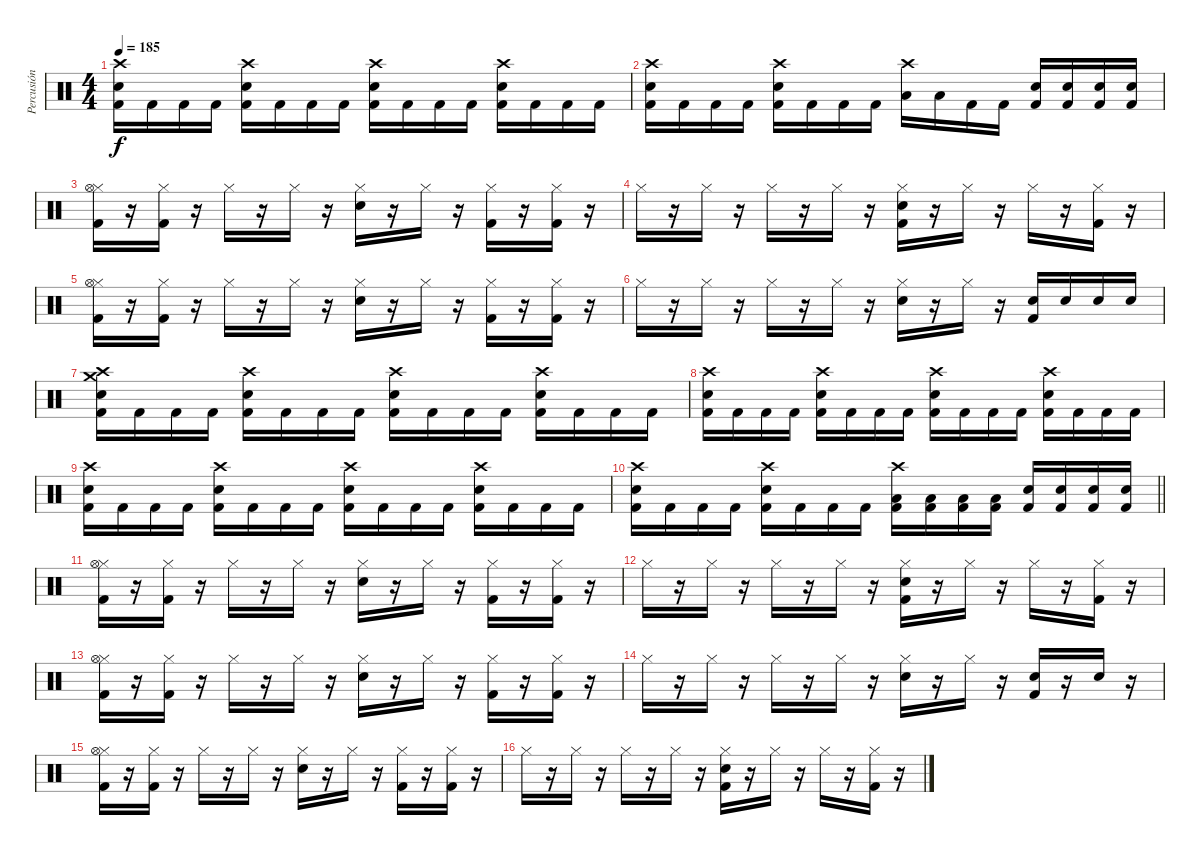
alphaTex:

\track ("Percusión" "Percusión") {instrument percussion}
\staff {score}
\articulation defaults
\ts (4 4)
\tempo 185
\clef neutral
\ks c
("Crash high (hit)" "Electric Snare (hit)" "Kick (hit) 2").16{dy f} "Kick (hit) 2".16 "Kick (hit) 2".16 "Kick (hit) 2".16 ("Crash high (hit)" "Electric Snare (hit)" "Kick (hit) 2").16 "Kick (hit) 2".16 "Kick (hit) 2".16 "Kick (hit) 2".16 ("Crash high (hit)" "Electric Snare (hit)" "Kick (hit) 2").16 "Kick (hit) 2".16 "Kick (hit) 2".16 "Kick (hit) 2".16 ("Crash high (hit)" "Electric Snare (hit)" "Kick (hit) 2").16 "Kick (hit) 2".16 "Kick (hit) 2".16 "Kick (hit) 2".16 |
("Crash high (hit)" "Electric Snare (hit)" "Kick (hit) 2").16 "Kick (hit) 2".16 "Kick (hit) 2".16 "Kick (hit) 2".16 ("Crash high (hit)" "Electric Snare (hit)" "Kick (hit) 2").16 "Kick (hit) 2".16 "Kick (hit) 2".16 "Kick (hit) 2".16 ("Crash high (hit)" "Low Tom (hit)").16 "Low Tom (hit)".16 "Kick (hit) 2".16 "Kick (hit) 2".16 ("Electric Snare (hit)" "Kick (hit) 2").16 ("Electric Snare (hit)" "Kick (hit) 2").16 ("Electric Snare (hit)" "Kick (hit) 2").16 ("Electric Snare (hit)" "Kick (hit) 2").16 |
("Hi-Hat (closed)" "Hi-Hat (open)" "Kick (hit) 2").16 r.16 ("Hi-Hat (closed)" "Kick (hit) 2").16 r.16 "Hi-Hat (closed)".16 r.16 "Hi-Hat (closed)".16 r.16 ("Hi-Hat (closed)" "Electric Snare (hit)").16 r.16 "Hi-Hat (closed)".16 r.16 ("Hi-Hat (closed)" "Kick (hit) 2").16 r.16 ("Hi-Hat (closed)" "Kick (hit) 2").16 r.16 |
"Hi-Hat (closed)".16 r.16 "Hi-Hat (closed)".16 r.16 "Hi-Hat (closed)".16 r.16 "Hi-Hat (closed)".16 r.16 ("Hi-Hat (closed)" "Electric Snare (hit)" "Kick (hit) 2").16 r.16 "Hi-Hat (closed)".16 r.16 "Hi-Hat (closed)".16 r.16 ("Hi-Hat (closed)" "Kick (hit) 2").16 r.16 |
("Hi-Hat (closed)" "Hi-Hat (open)" "Kick (hit) 2").16 r.16 ("Hi-Hat (closed)" "Kick (hit) 2").16 r.16 "Hi-Hat (closed)".16 r.16 "Hi-Hat (closed)".16 r.16 ("Hi-Hat (closed)" "Electric Snare (hit)").16 r.16 "Hi-Hat (closed)".16 r.16 ("Hi-Hat (closed)" "Kick (hit) 2").16 r.16 ("Hi-Hat (closed)" "Kick (hit) 2").16 r.16 |
"Hi-Hat (closed)".16 r.16 "Hi-Hat (closed)".16 r.16 "Hi-Hat (closed)".16 r.16 "Hi-Hat (closed)".16 r.16 ("Hi-Hat (closed)" "Electric Snare (hit)").16 r.16 "Hi-Hat (closed)".16 r.16 ("Electric Snare (hit)" "Kick (hit) 2").16 "Electric Snare (hit)".16 "Electric Snare (hit)".16 "Electric Snare (hit)".16 |
("Crash high (hit)" "Crash medium (hit)" "Electric Snare (hit)" "Kick (hit) 2").16 "Kick (hit) 2".16 "Kick (hit) 2".16 "Kick (hit) 2".16 ("Crash high (hit)" "Electric Snare (hit)" "Kick (hit) 2").16 "Kick (hit) 2".16 "Kick (hit) 2".16 "Kick (hit) 2".16 ("Crash high (hit)" "Electric Snare (hit)" "Kick (hit) 2").16 "Kick (hit) 2".16 "Kick (hit) 2".16 "Kick (hit) 2".16 ("Crash high (hit)" "Electric Snare (hit)" "Kick (hit) 2").16 "Kick (hit) 2".16 "Kick (hit) 2".16 "Kick (hit) 2".16 |
("Crash high (hit)" "Electric Snare (hit)" "Kick (hit) 2").16 "Kick (hit) 2".16 "Kick (hit) 2".16 "Kick (hit) 2".16 ("Crash high (hit)" "Electric Snare (hit)" "Kick (hit) 2").16 "Kick (hit) 2".16 "Kick (hit) 2".16 "Kick (hit) 2".16 ("Crash high (hit)" "Electric Snare (hit)" "Kick (hit) 2").16 "Kick (hit) 2".16 "Kick (hit) 2".16 "Kick (hit) 2".16 ("Crash high (hit)" "Electric Snare (hit)" "Kick (hit) 2").16 "Kick (hit) 2".16 "Kick (hit) 2".16 "Kick (hit) 2".16 |
("Crash high (hit)" "Electric Snare (hit)" "Kick (hit) 2").16 "Kick (hit) 2".16 "Kick (hit) 2".16 "Kick (hit) 2".16 ("Crash high (hit)" "Electric Snare (hit)" "Kick (hit) 2").16 "Kick (hit) 2".16 "Kick (hit) 2".16 "Kick (hit) 2".16 ("Crash high (hit)" "Electric Snare (hit)" "Kick (hit) 2").16 "Kick (hit) 2".16 "Kick (hit) 2".16 "Kick (hit) 2".16 ("Crash high (hit)" "Electric Snare (hit)" "Kick (hit) 2").16 "Kick (hit) 2".16 "Kick (hit) 2".16 "Kick (hit) 2".16 |
\barLineRight lightlight
("Crash high (hit)" "Electric Snare (hit)" "Kick (hit) 2").16 "Kick (hit) 2".16 "Kick (hit) 2".16 "Kick (hit) 2".16 ("Crash high (hit)" "Electric Snare (hit)" "Kick (hit) 2").16 "Kick (hit) 2".16 "Kick (hit) 2".16 "Kick (hit) 2".16 ("Crash high (hit)" "Low Tom (hit)" "Kick (hit) 2").16 ("Low Tom (hit)" "Kick (hit) 2").16 ("Low Tom (hit)" "Kick (hit) 2").16 ("Low Tom (hit)" "Kick (hit) 2").16 ("Electric Snare (hit)" "Kick (hit) 2").16 ("Electric Snare (hit)" "Kick (hit) 2").16 ("Electric Snare (hit)" "Kick (hit) 2").16 ("Electric Snare (hit)" "Kick (hit) 2").16 |
("Hi-Hat (closed)" "Hi-Hat (open)" "Kick (hit) 2").16 r.16 ("Hi-Hat (closed)" "Kick (hit) 2").16 r.16 "Hi-Hat (closed)".16 r.16 "Hi-Hat (closed)".16 r.16 ("Hi-Hat (closed)" "Electric Snare (hit)").16 r.16 "Hi-Hat (closed)".16 r.16 ("Hi-Hat (closed)" "Kick (hit) 2").16 r.16 ("Hi-Hat (closed)" "Kick (hit) 2").16 r.16 |
"Hi-Hat (closed)".16 r.16 "Hi-Hat (closed)".16 r.16 "Hi-Hat (closed)".16 r.16 "Hi-Hat (closed)".16 r.16 ("Hi-Hat (closed)" "Electric Snare (hit)" "Kick (hit) 2").16 r.16 "Hi-Hat (closed)".16 r.16 "Hi-Hat (closed)".16 r.16 ("Hi-Hat (closed)" "Kick (hit) 2").16 r.16 |
("Hi-Hat (closed)" "Hi-Hat (open)" "Kick (hit) 2").16 r.16 ("Hi-Hat (closed)" "Kick (hit) 2").16 r.16 "Hi-Hat (closed)".16 r.16 "Hi-Hat (closed)".16 r.16 ("Hi-Hat (closed)" "Electric Snare (hit)").16 r.16 "Hi-Hat (closed)".16 r.16 ("Hi-Hat (closed)" "Kick (hit) 2").16 r.16 ("Hi-Hat (closed)" "Kick (hit) 2").16 r.16 |
"Hi-Hat (closed)".16 r.16 "Hi-Hat (closed)".16 r.16 "Hi-Hat (closed)".16 r.16 "Hi-Hat (closed)".16 r.16 ("Hi-Hat (closed)" "Electric Snare (hit)").16 r.16 "Hi-Hat (closed)".16 r.16 ("Electric Snare (hit)" "Kick (hit) 2").16 r.16 "Electric Snare (hit)".16 r.16 |
("Hi-Hat (closed)" "Hi-Hat (open)" "Kick (hit) 2").16 r.16 ("Hi-Hat (closed)" "Kick (hit) 2").16 r.16 "Hi-Hat (closed)".16 r.16 "Hi-Hat (closed)".16 r.16 ("Hi-Hat (closed)" "Electric Snare (hit)").16 r.16 "Hi-Hat (closed)".16 r.16 ("Hi-Hat (closed)" "Kick (hit) 2").16 r.16 ("Hi-Hat (closed)" "Kick (hit) 2").16 r.16 |
"Hi-Hat (closed)".16 r.16 "Hi-Hat (closed)".16 r.16 "Hi-Hat (closed)".16 r.16 "Hi-Hat (closed)".16 r.16 ("Hi-Hat (closed)" "Electric Snare (hit)" "Kick (hit) 2").16 r.16 "Hi-Hat (closed)".16 r.16 "Hi-Hat (closed)".16 r.16 ("Hi-Hat (closed)" "Kick (hit) 2").16 r.16
